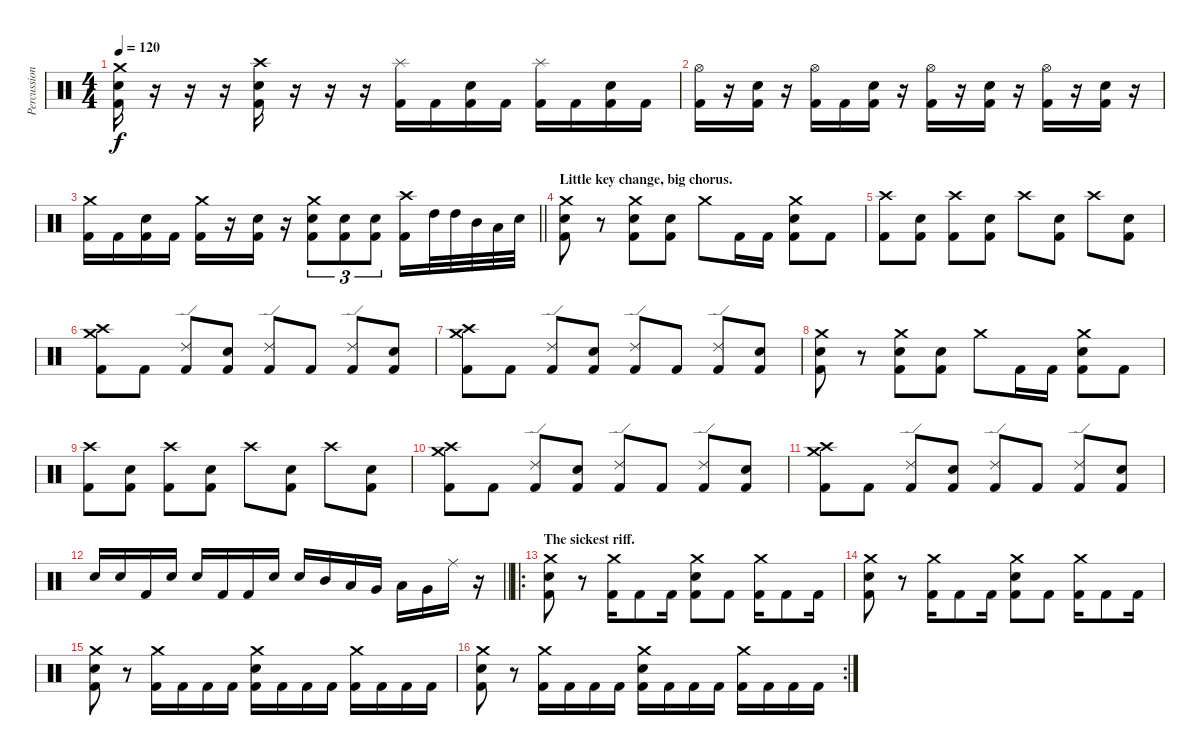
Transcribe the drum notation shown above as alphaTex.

\track ("Percussion" "Percussion") {instrument percussion}
\staff {score}
\articulation defaults
\ts (4 4)
\tempo 120
\clef neutral
\ks c
("Crash medium (hit)" "Electric Snare (hit)" "Kick (hit) 2").16{dy f} r.16 r.16 r.16 ("Crash high (hit)" "Electric Snare (hit)" "Kick (hit) 2").16 r.16 r.16 r.16 ("Splash (hit)" "Kick (hit) 2").16 "Kick (hit) 2".16 ("Electric Snare (hit)" "Kick (hit) 2").16 "Kick (hit) 2".16 ("Splash (hit)" "Kick (hit) 2").16 "Kick (hit) 2".16 ("Electric Snare (hit)" "Kick (hit) 2").16 "Kick (hit) 2".16 |
("Hi-Hat (open)" "Kick (hit) 2").16 r.16 ("Electric Snare (hit)" "Kick (hit) 2").16 r.16 ("Hi-Hat (open)" "Kick (hit) 2").16 "Kick (hit) 2".16 ("Electric Snare (hit)" "Kick (hit) 2").16 r.16 ("Hi-Hat (open)" "Kick (hit) 2").16 r.16 ("Electric Snare (hit)" "Kick (hit) 2").16 r.16 ("Hi-Hat (open)" "Kick (hit) 2").16 r.16 ("Electric Snare (hit)" "Kick (hit) 2").16 r.16 |
\barLineRight lightlight
("Crash medium (hit)" "Kick (hit) 2").16 "Kick (hit) 2".16 ("Electric Snare (hit)" "Kick (hit) 2").16 "Kick (hit) 2".16 ("Crash medium (hit)" "Kick (hit) 2").16 r.16 ("Electric Snare (hit)" "Kick (hit) 2").16 r.16 ("Crash medium (hit)" "Electric Snare (hit)" "Kick (hit) 2").8{tu (3 2)} ("Electric Snare (hit)" "Kick (hit) 2").8{tu (3 2)} ("Electric Snare (hit)" "Kick (hit) 2").8{tu (3 2)} ("Crash high (hit)" "Kick (hit) 2").16 "High Tom (hit)".32 "High Tom (hit)".32 "Mid Tom (hit)".32 "Low Tom (hit)".32 "Electric Snare (hit)".32 |
\section ("" "Little key change, big chorus.")
("Crash medium (hit)" "Electric Snare (hit)" "Kick (hit) 2").8 r.8 ("Crash medium (hit)" "Electric Snare (hit)" "Kick (hit) 2").8 ("Electric Snare (hit)" "Kick (hit) 2").8 "Crash medium (hit)".8 "Kick (hit) 2".16 "Kick (hit) 2".16 ("Crash medium (hit)" "Electric Snare (hit)" "Kick (hit) 2").8 "Kick (hit) 2".8 |
("Crash high (hit)" "Kick (hit) 2").8 ("Electric Snare (hit)" "Kick (hit) 2").8 ("Crash high (hit)" "Kick (hit) 2").8 ("Electric Snare (hit)" "Kick (hit) 2").8 "Crash high (hit)".8 ("Electric Snare (hit)" "Kick (hit) 2").8 "Crash high (hit)".8 ("Electric Snare (hit)" "Kick (hit) 2").8 |
("Crash medium (hit)" "Crash high (hit)" "Kick (hit) 2").8 "Kick (hit) 2".8 ("Ride (edge) 2" "Kick (hit) 2").8 ("Electric Snare (hit)" "Kick (hit) 2").8 ("Ride (edge) 2" "Kick (hit) 2").8 "Kick (hit) 2".8 ("Ride (edge) 2" "Kick (hit) 2").8 ("Electric Snare (hit)" "Kick (hit) 2").8 |
("Crash medium (hit)" "Crash high (hit)" "Kick (hit) 2").8 "Kick (hit) 2".8 ("Ride (edge) 2" "Kick (hit) 2").8 ("Electric Snare (hit)" "Kick (hit) 2").8 ("Ride (edge) 2" "Kick (hit) 2").8 "Kick (hit) 2".8 ("Ride (edge) 2" "Kick (hit) 2").8 ("Electric Snare (hit)" "Kick (hit) 2").8 |
("Crash medium (hit)" "Electric Snare (hit)" "Kick (hit) 2").8 r.8 ("Crash medium (hit)" "Electric Snare (hit)" "Kick (hit) 2").8 ("Electric Snare (hit)" "Kick (hit) 2").8 "Crash medium (hit)".8 "Kick (hit) 2".16 "Kick (hit) 2".16 ("Crash medium (hit)" "Electric Snare (hit)" "Kick (hit) 2").8 "Kick (hit) 2".8 |
("Crash high (hit)" "Kick (hit) 2").8 ("Electric Snare (hit)" "Kick (hit) 2").8 ("Crash high (hit)" "Kick (hit) 2").8 ("Electric Snare (hit)" "Kick (hit) 2").8 "Crash high (hit)".8 ("Electric Snare (hit)" "Kick (hit) 2").8 "Crash high (hit)".8 ("Electric Snare (hit)" "Kick (hit) 2").8 |
("Crash medium (hit)" "Crash high (hit)" "Kick (hit) 2").8 "Kick (hit) 2".8 ("Ride (edge) 2" "Kick (hit) 2").8 ("Electric Snare (hit)" "Kick (hit) 2").8 ("Ride (edge) 2" "Kick (hit) 2").8 "Kick (hit) 2".8 ("Ride (edge) 2" "Kick (hit) 2").8 ("Electric Snare (hit)" "Kick (hit) 2").8 |
("Crash medium (hit)" "Crash high (hit)" "Kick (hit) 2").8 "Kick (hit) 2".8 ("Ride (edge) 2" "Kick (hit) 2").8 ("Electric Snare (hit)" "Kick (hit) 2").8 ("Ride (edge) 2" "Kick (hit) 2").8 "Kick (hit) 2".8 ("Ride (edge) 2" "Kick (hit) 2").8 ("Electric Snare (hit)" "Kick (hit) 2").8 |
\barLineRight lightlight "Electric Snare (hit)".16 "Electric Snare (hit)".16 "Kick (hit) 2".16 "Electric Snare (hit)".16 "Electric Snare (hit)".16 "Kick (hit) 2".16 "Kick (hit) 2".16 "Electric Snare (hit)".16 "Electric Snare (hit)".16 "Mid Tom (hit)".16 "Low Tom (hit)".16 "Very Low Tom (hit)".16 "Low Tom (hit)".16 "Very Low Tom (hit)".16 "Ride (middle)".16
r.16 |
\ro
\section ("" "The sickest riff.")
("Crash medium (hit)" "Electric Snare (hit)" "Kick (hit) 2").8 r.8 ("Crash medium (hit)" "Kick (hit) 2").16 "Kick (hit) 2".8 "Kick (hit) 2".16 ("Crash medium (hit)" "Electric Snare (hit)" "Kick (hit) 2").8 "Kick (hit) 2".8 ("Crash medium (hit)" "Kick (hit) 2").16 "Kick (hit) 2".8 "Kick (hit) 2".16 |
("Crash medium (hit)" "Electric Snare (hit)" "Kick (hit) 2").8 r.8 ("Crash medium (hit)" "Kick (hit) 2").16 "Kick (hit) 2".8 "Kick (hit) 2".16 ("Crash medium (hit)" "Electric Snare (hit)" "Kick (hit) 2").8 "Kick (hit) 2".8 ("Crash medium (hit)" "Kick (hit) 2").16 "Kick (hit) 2".8 "Kick (hit) 2".16 |
("Crash medium (hit)" "Electric Snare (hit)" "Kick (hit) 2").8 r.8 ("Crash medium (hit)" "Kick (hit) 2").16 "Kick (hit) 2".16 "Kick (hit) 2".16 "Kick (hit) 2".16 ("Crash medium (hit)" "Electric Snare (hit)" "Kick (hit) 2").16 "Kick (hit) 2".16 "Kick (hit) 2".16 "Kick (hit) 2".16 ("Crash medium (hit)" "Kick (hit) 2").16 "Kick (hit) 2".16 "Kick (hit) 2".16 "Kick (hit) 2".16 |
\rc 2
("Crash medium (hit)" "Electric Snare (hit)" "Kick (hit) 2").8 r.8 ("Crash medium (hit)" "Kick (hit) 2").16 "Kick (hit) 2".16 "Kick (hit) 2".16 "Kick (hit) 2".16 ("Crash medium (hit)" "Electric Snare (hit)" "Kick (hit) 2").16 "Kick (hit) 2".16 "Kick (hit) 2".16 "Kick (hit) 2".16 ("Crash medium (hit)" "Kick (hit) 2").16 "Kick (hit) 2".16 "Kick (hit) 2".16 "Kick (hit) 2".16
